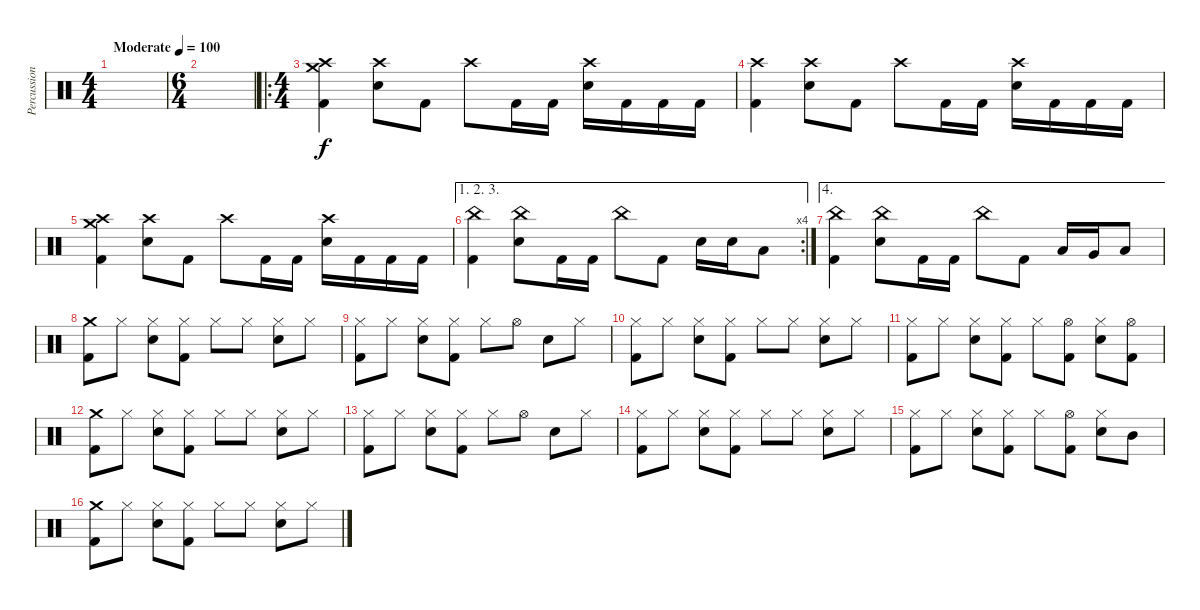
\track ("Percussion" "Percussion") {instrument percussion}
\staff {score}
\articulation defaults
\ts (4 4)
\tempo (100 "Moderate")
\clef neutral
\ks c
|
\ts (6 4)
|
\ro
\ts (4 4)
("Crash medium (hit)" "Crash high (hit)" "Kick (hit) 2").4 ("Crash high (hit)" "Electric Snare (hit)").8 "Kick (hit) 2".8 "Crash high (hit)".8 "Kick (hit) 2".16 "Kick (hit) 2".16 ("Crash high (hit)" "Electric Snare (hit)").16 "Kick (hit) 2".16 "Kick (hit) 2".16 "Kick (hit) 2".16 |
("Crash high (hit)" "Kick (hit) 2").4 ("Crash high (hit)" "Electric Snare (hit)").8 "Kick (hit) 2".8 "Crash high (hit)".8 "Kick (hit) 2".16 "Kick (hit) 2".16 ("Crash high (hit)" "Electric Snare (hit)").16 "Kick (hit) 2".16 "Kick (hit) 2".16 "Kick (hit) 2".16 |
("Crash medium (hit)" "Crash high (hit)" "Kick (hit) 2").4 ("Crash high (hit)" "Electric Snare (hit)").8 "Kick (hit) 2".8 "Crash high (hit)".8 "Kick (hit) 2".16 "Kick (hit) 2".16 ("Crash high (hit)" "Electric Snare (hit)").16 "Kick (hit) 2".16 "Kick (hit) 2".16 "Kick (hit) 2".16 |
\ae (1 2 3)
\rc 4
("China (hit)" "Kick (hit) 2").4 ("China (hit)" "Electric Snare (hit)").8 "Kick (hit) 2".16 "Kick (hit) 2".16 "China (hit)".8 "Kick (hit) 2".8 "Electric Snare (hit)".16 "Electric Snare (hit)".16 "Low Floor Tom (hit)".8 |
\ae 4
("China (hit)" "Kick (hit) 2").4 ("China (hit)" "Electric Snare (hit)").8 "Kick (hit) 2".16 "Kick (hit) 2".16 "China (hit)".8 "Kick (hit) 2".8 "Low Tom (hit)".16 "Very Low Tom (hit)".16 "Low Floor Tom (hit)".8 |
("Crash medium (hit)" "Kick (hit) 2").8 "Hi-Hat (closed)".8 ("Hi-Hat (closed)" "Electric Snare (hit)").8 ("Hi-Hat (closed)" "Kick (hit) 2").8 "Hi-Hat (closed)".8 "Hi-Hat (closed)".8 ("Hi-Hat (closed)" "Electric Snare (hit)").8 "Hi-Hat (closed)".8 |
("Hi-Hat (closed)" "Kick (hit) 2").8 "Hi-Hat (closed)".8 ("Hi-Hat (closed)" "Electric Snare (hit)").8 ("Hi-Hat (closed)" "Kick (hit) 2").8 "Hi-Hat (closed)".8 "Hi-Hat (open)".8 "Electric Snare (hit)".8 "Hi-Hat (closed)".8 |
("Hi-Hat (closed)" "Kick (hit) 2").8 "Hi-Hat (closed)".8 ("Hi-Hat (closed)" "Electric Snare (hit)").8 ("Hi-Hat (closed)" "Kick (hit) 2").8 "Hi-Hat (closed)".8 "Hi-Hat (closed)".8 ("Hi-Hat (closed)" "Electric Snare (hit)").8 "Hi-Hat (closed)".8 |
("Hi-Hat (closed)" "Kick (hit) 2").8 "Hi-Hat (closed)".8 ("Hi-Hat (closed)" "Electric Snare (hit)").8 ("Hi-Hat (closed)" "Kick (hit) 2").8 "Hi-Hat (closed)".8 ("Hi-Hat (open)" "Kick (hit) 2").8 ("Hi-Hat (closed)" "Electric Snare (hit)").8 ("Hi-Hat (open)" "Kick (hit) 2").8 |
("Crash medium (hit)" "Kick (hit) 2").8 "Hi-Hat (closed)".8 ("Hi-Hat (closed)" "Electric Snare (hit)").8 ("Hi-Hat (closed)" "Kick (hit) 2").8 "Hi-Hat (closed)".8 "Hi-Hat (closed)".8 ("Hi-Hat (closed)" "Electric Snare (hit)").8 "Hi-Hat (closed)".8 |
("Hi-Hat (closed)" "Kick (hit) 2").8 "Hi-Hat (closed)".8 ("Hi-Hat (closed)" "Electric Snare (hit)").8 ("Hi-Hat (closed)" "Kick (hit) 2").8 "Hi-Hat (closed)".8 "Hi-Hat (open)".8 "Electric Snare (hit)".8 "Hi-Hat (closed)".8 |
("Hi-Hat (closed)" "Kick (hit) 2").8 "Hi-Hat (closed)".8 ("Hi-Hat (closed)" "Electric Snare (hit)").8 ("Hi-Hat (closed)" "Kick (hit) 2").8 "Hi-Hat (closed)".8 "Hi-Hat (closed)".8 ("Hi-Hat (closed)" "Electric Snare (hit)").8 "Hi-Hat (closed)".8 |
("Hi-Hat (closed)" "Kick (hit) 2").8 "Hi-Hat (closed)".8 ("Hi-Hat (closed)" "Electric Snare (hit)").8 ("Hi-Hat (closed)" "Kick (hit) 2").8 "Hi-Hat (closed)".8 ("Hi-Hat (open)" "Kick (hit) 2").8 ("Hi-Hat (closed)" "Electric Snare (hit)").8 "Mid Tom (hit)".8 |
("Crash medium (hit)" "Kick (hit) 2").8 "Hi-Hat (closed)".8 ("Hi-Hat (closed)" "Electric Snare (hit)").8 ("Hi-Hat (closed)" "Kick (hit) 2").8 "Hi-Hat (closed)".8 "Hi-Hat (closed)".8 ("Hi-Hat (closed)" "Electric Snare (hit)").8 "Hi-Hat (closed)".8
